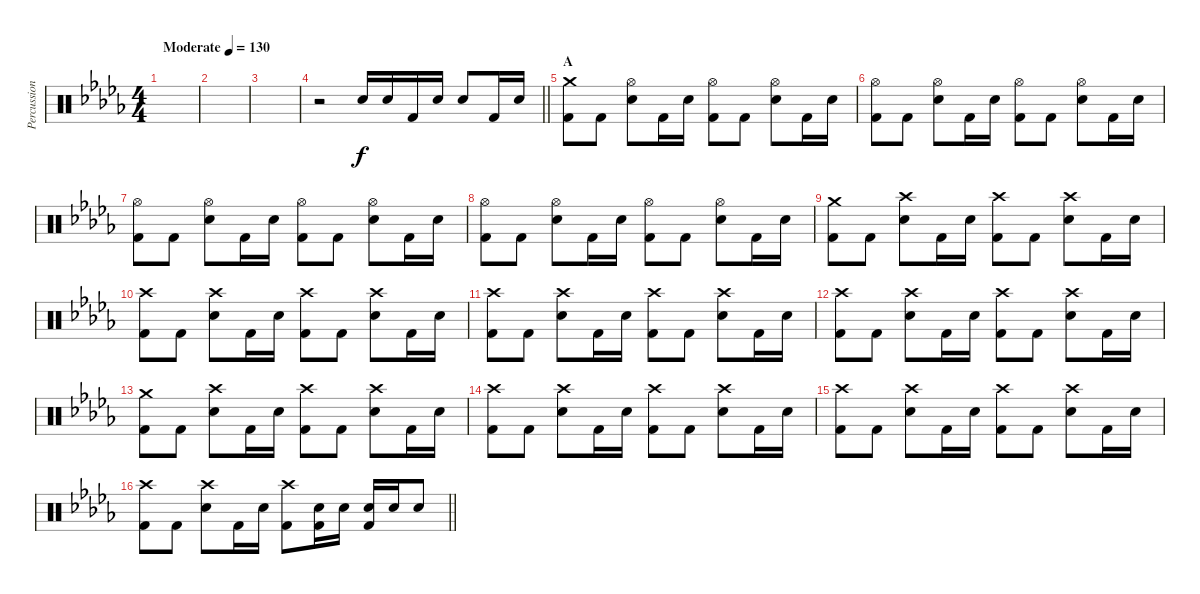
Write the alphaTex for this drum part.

\track ("Percussion" "Percussion") {instrument percussion}
\staff {score}
\articulation defaults
\ts (4 4)
\tempo (130 "Moderate")
\clef neutral
\ks db
|
|
|
\barLineRight lightlight
r.2 "Electric Snare (hit)".16 "Electric Snare (hit)".16 "Kick (hit) 2".16 "Electric Snare (hit)".16 "Electric Snare (hit)".8 "Kick (hit) 2".16 "Electric Snare (hit)".16 |
\section ("" "A")
("Crash medium (hit)" "Kick (hit) 2").8 "Kick (hit) 2".8 ("Hi-Hat (open)" "Electric Snare (hit)").8 "Kick (hit) 2".16 "Electric Snare (hit)".16 ("Hi-Hat (open)" "Kick (hit) 2").8 "Kick (hit) 2".8 ("Hi-Hat (open)" "Electric Snare (hit)").8 "Kick (hit) 2".16 "Electric Snare (hit)".16 |
("Hi-Hat (open)" "Kick (hit) 2").8 "Kick (hit) 2".8 ("Hi-Hat (open)" "Electric Snare (hit)").8 "Kick (hit) 2".16 "Electric Snare (hit)".16 ("Hi-Hat (open)" "Kick (hit) 2").8 "Kick (hit) 2".8 ("Hi-Hat (open)" "Electric Snare (hit)").8 "Kick (hit) 2".16 "Electric Snare (hit)".16 |
("Hi-Hat (open)" "Kick (hit) 2").8 "Kick (hit) 2".8 ("Hi-Hat (open)" "Electric Snare (hit)").8 "Kick (hit) 2".16 "Electric Snare (hit)".16 ("Hi-Hat (open)" "Kick (hit) 2").8 "Kick (hit) 2".8 ("Hi-Hat (open)" "Electric Snare (hit)").8 "Kick (hit) 2".16 "Electric Snare (hit)".16 |
("Hi-Hat (open)" "Kick (hit) 2").8 "Kick (hit) 2".8 ("Hi-Hat (open)" "Electric Snare (hit)").8 "Kick (hit) 2".16 "Electric Snare (hit)".16 ("Hi-Hat (open)" "Kick (hit) 2").8 "Kick (hit) 2".8 ("Hi-Hat (open)" "Electric Snare (hit)").8 "Kick (hit) 2".16 "Electric Snare (hit)".16 |
("Crash medium (hit)" "Kick (hit) 2").8 "Kick (hit) 2".8 ("Crash high (hit)" "Electric Snare (hit)").8 "Kick (hit) 2".16 "Electric Snare (hit)".16 ("Crash high (hit)" "Kick (hit) 2").8 "Kick (hit) 2".8 ("Crash high (hit)" "Electric Snare (hit)").8 "Kick (hit) 2".16 "Electric Snare (hit)".16 |
("Crash high (hit)" "Kick (hit) 2").8 "Kick (hit) 2".8 ("Crash high (hit)" "Electric Snare (hit)").8 "Kick (hit) 2".16 "Electric Snare (hit)".16 ("Crash high (hit)" "Kick (hit) 2").8 "Kick (hit) 2".8 ("Crash high (hit)" "Electric Snare (hit)").8 "Kick (hit) 2".16 "Electric Snare (hit)".16 |
("Crash high (hit)" "Kick (hit) 2").8 "Kick (hit) 2".8 ("Crash high (hit)" "Electric Snare (hit)").8 "Kick (hit) 2".16 "Electric Snare (hit)".16 ("Crash high (hit)" "Kick (hit) 2").8 "Kick (hit) 2".8 ("Crash high (hit)" "Electric Snare (hit)").8 "Kick (hit) 2".16 "Electric Snare (hit)".16 |
("Crash high (hit)" "Kick (hit) 2").8 "Kick (hit) 2".8 ("Crash high (hit)" "Electric Snare (hit)").8 "Kick (hit) 2".16 "Electric Snare (hit)".16 ("Crash high (hit)" "Kick (hit) 2").8 "Kick (hit) 2".8 ("Crash high (hit)" "Electric Snare (hit)").8 "Kick (hit) 2".16 "Electric Snare (hit)".16 |
("Crash medium (hit)" "Kick (hit) 2").8 "Kick (hit) 2".8 ("Crash high (hit)" "Electric Snare (hit)").8 "Kick (hit) 2".16 "Electric Snare (hit)".16 ("Crash high (hit)" "Kick (hit) 2").8 "Kick (hit) 2".8 ("Crash high (hit)" "Electric Snare (hit)").8 "Kick (hit) 2".16 "Electric Snare (hit)".16 |
("Crash high (hit)" "Kick (hit) 2").8 "Kick (hit) 2".8 ("Crash high (hit)" "Electric Snare (hit)").8 "Kick (hit) 2".16 "Electric Snare (hit)".16 ("Crash high (hit)" "Kick (hit) 2").8 "Kick (hit) 2".8 ("Crash high (hit)" "Electric Snare (hit)").8 "Kick (hit) 2".16 "Electric Snare (hit)".16 |
("Crash high (hit)" "Kick (hit) 2").8 "Kick (hit) 2".8 ("Crash high (hit)" "Electric Snare (hit)").8 "Kick (hit) 2".16 "Electric Snare (hit)".16 ("Crash high (hit)" "Kick (hit) 2").8 "Kick (hit) 2".8 ("Crash high (hit)" "Electric Snare (hit)").8 "Kick (hit) 2".16 "Electric Snare (hit)".16 |
\barLineRight lightlight
("Crash high (hit)" "Kick (hit) 2").8 "Kick (hit) 2".8 ("Crash high (hit)" "Electric Snare (hit)").8 "Kick (hit) 2".16 "Electric Snare (hit)".16 ("Crash high (hit)" "Kick (hit) 2").8 ("Electric Snare (hit)" "Kick (hit) 2").16 "Electric Snare (hit)".16 ("Electric Snare (hit)" "Kick (hit) 2").16 "Electric Snare (hit)".16 "Electric Snare (hit)".8
